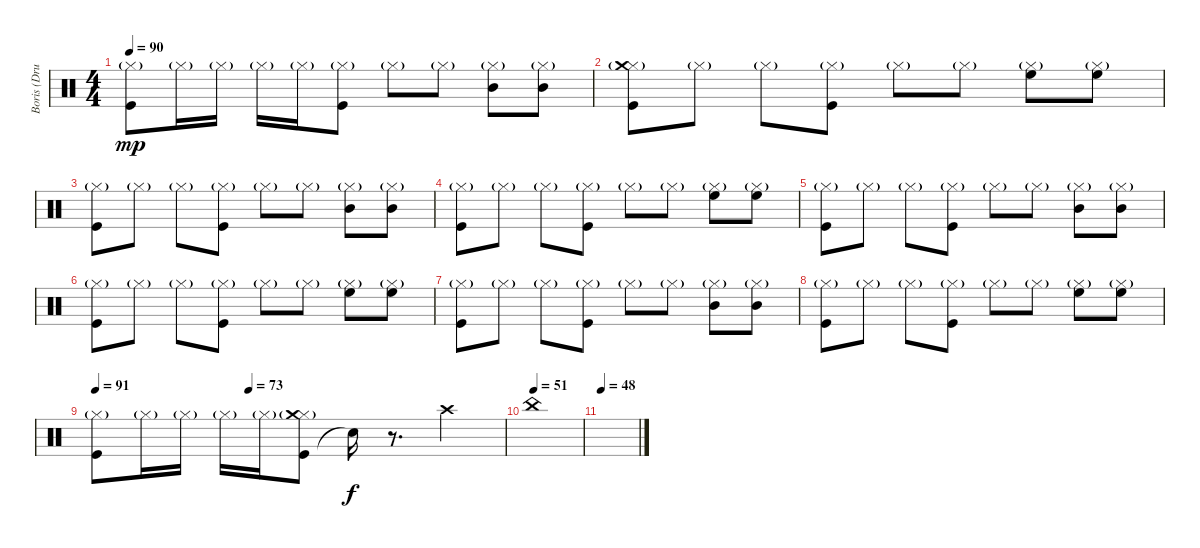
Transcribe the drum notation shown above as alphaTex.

\track ("Boris (Drums)" "Boris (Dru") {instrument percussion}
\staff {score}
\articulation defaults
\ts (4 4)
\tempo 90
\clef neutral
\ks c
("Kick (hit)" "Hi-Hat (closed)"{g}).8{dy mp} "Hi-Hat (closed)"{g}.16 "Hi-Hat (closed)"{g}.16 "Hi-Hat (closed)"{g}.16 "Hi-Hat (closed)"{g}.16 ("Kick (hit)" "Hi-Hat (closed)"{g}).8 "Hi-Hat (closed)"{g}.8 "Hi-Hat (closed)"{g}.8 ("Mid Tom (hit)" "Hi-Hat (closed)"{g}).8 ("Mid Tom (hit)" "Hi-Hat (closed)"{g}).8 |
("Kick (hit)" "Hi-Hat (closed)"{g} "Crash medium (hit)").8 "Hi-Hat (closed)"{g}.8 "Hi-Hat (closed)"{g}.8 ("Kick (hit)" "Hi-Hat (closed)"{g}).8 "Hi-Hat (closed)"{g}.8 "Hi-Hat (closed)"{g}.8 ("High Floor Tom (hit)" "Hi-Hat (closed)"{g}).8 ("High Floor Tom (hit)" "Hi-Hat (closed)"{g}).8 |
("Kick (hit)" "Hi-Hat (closed)"{g}).8 "Hi-Hat (closed)"{g}.8 "Hi-Hat (closed)"{g}.8 ("Kick (hit)" "Hi-Hat (closed)"{g}).8 "Hi-Hat (closed)"{g}.8 "Hi-Hat (closed)"{g}.8 ("Mid Tom (hit)" "Hi-Hat (closed)"{g}).8 ("Mid Tom (hit)" "Hi-Hat (closed)"{g}).8 |
("Kick (hit)" "Hi-Hat (closed)"{g}).8 "Hi-Hat (closed)"{g}.8 "Hi-Hat (closed)"{g}.8 ("Kick (hit)" "Hi-Hat (closed)"{g}).8 "Hi-Hat (closed)"{g}.8 "Hi-Hat (closed)"{g}.8 ("High Floor Tom (hit)" "Hi-Hat (closed)"{g}).8 ("High Floor Tom (hit)" "Hi-Hat (closed)"{g}).8 |
("Kick (hit)" "Hi-Hat (closed)"{g}).8 "Hi-Hat (closed)"{g}.8 "Hi-Hat (closed)"{g}.8 ("Kick (hit)" "Hi-Hat (closed)"{g}).8 "Hi-Hat (closed)"{g}.8 "Hi-Hat (closed)"{g}.8 ("Mid Tom (hit)" "Hi-Hat (closed)"{g}).8 ("Mid Tom (hit)" "Hi-Hat (closed)"{g}).8 |
("Kick (hit)" "Hi-Hat (closed)"{g}).8 "Hi-Hat (closed)"{g}.8 "Hi-Hat (closed)"{g}.8 ("Kick (hit)" "Hi-Hat (closed)"{g}).8 "Hi-Hat (closed)"{g}.8 "Hi-Hat (closed)"{g}.8 ("High Floor Tom (hit)" "Hi-Hat (closed)"{g}).8 ("High Floor Tom (hit)" "Hi-Hat (closed)"{g}).8 |
("Kick (hit)" "Hi-Hat (closed)"{g}).8 "Hi-Hat (closed)"{g}.8 "Hi-Hat (closed)"{g}.8 ("Kick (hit)" "Hi-Hat (closed)"{g}).8 "Hi-Hat (closed)"{g}.8 "Hi-Hat (closed)"{g}.8 ("Mid Tom (hit)" "Hi-Hat (closed)"{g}).8 ("Mid Tom (hit)" "Hi-Hat (closed)"{g}).8 |
("Kick (hit)" "Hi-Hat (closed)"{g}).8 "Hi-Hat (closed)"{g}.8 "Hi-Hat (closed)"{g}.8 ("Kick (hit)" "Hi-Hat (closed)"{g}).8 "Hi-Hat (closed)"{g}.8 "Hi-Hat (closed)"{g}.8 ("High Floor Tom (hit)" "Hi-Hat (closed)"{g}).8 ("High Floor Tom (hit)" "Hi-Hat (closed)"{g}).8 |
\tempo 91
\tempo (73 0.375)
("Kick (hit)" "Hi-Hat (closed)"{g}).8 "Hi-Hat (closed)"{g}.16 "Hi-Hat (closed)"{g}.16 "Hi-Hat (closed)"{g}.16 "Hi-Hat (closed)"{g}.16 ("Kick (hit)" "Hi-Hat (closed)"{g} "Crash medium (hit)").8 "Snare (hit)"{t}.16{dy f} r.8{d} "Crash high (hit)".4 |
\tempo (51)
"China (hit)".1 |
\tempo 48
